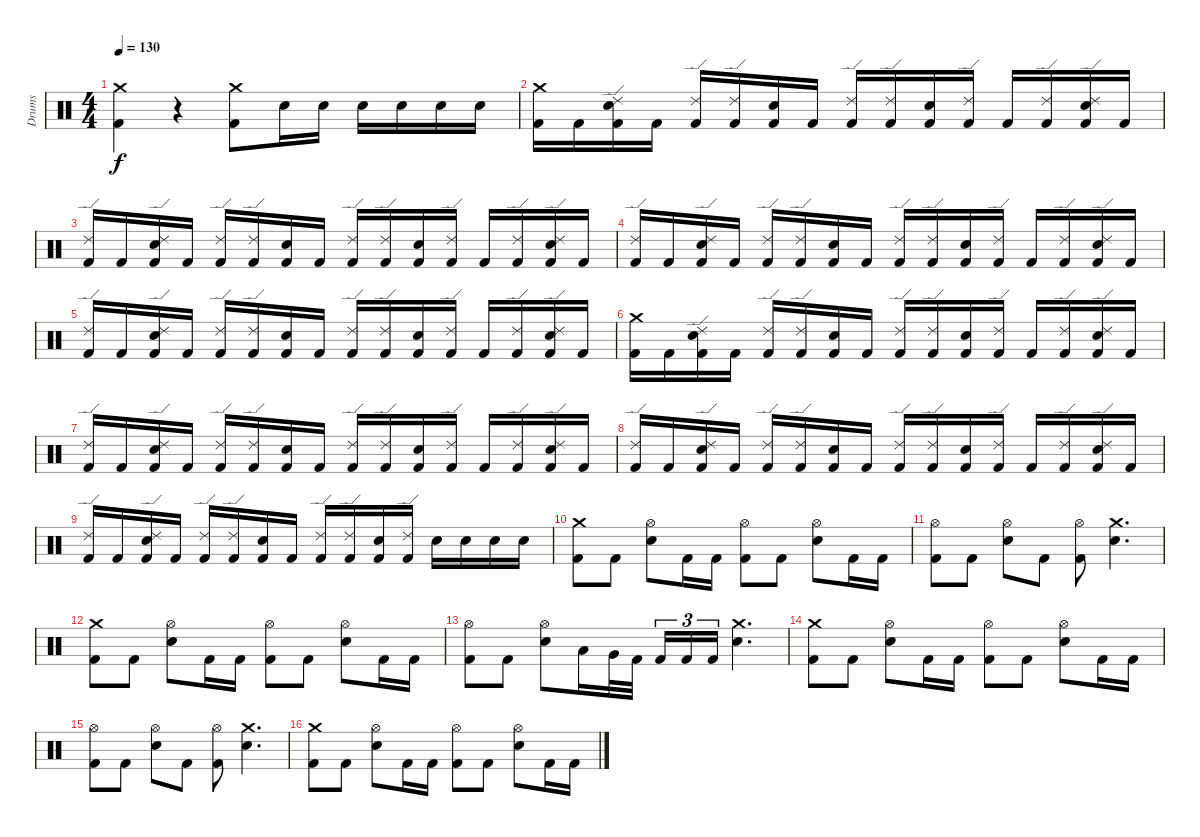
\track ("Drums" "Drums") {instrument percussion}
\staff {score}
\articulation defaults
\ts (4 4)
\tempo 130
\clef neutral
\ks c
("Crash medium (hit)" "Kick (hit) 2").4{dy f} r.4 ("Crash medium (hit)" "Kick (hit) 2").8 "Electric Snare (hit)".16 "Electric Snare (hit)".16 "Electric Snare (hit)".16 "Electric Snare (hit)".16 "Electric Snare (hit)".16 "Electric Snare (hit)".16 |
("Crash medium (hit)" "Kick (hit) 2").16 "Kick (hit) 2".16 ("Electric Snare (hit)" "Ride (edge) 2" "Kick (hit) 2").16 "Kick (hit) 2".16 ("Ride (edge) 2" "Kick (hit) 2").16 ("Ride (edge) 2" "Kick (hit) 2").16 ("Electric Snare (hit)" "Kick (hit) 2").16 "Kick (hit) 2".16 ("Ride (edge) 2" "Kick (hit) 2").16 ("Ride (edge) 2" "Kick (hit) 2").16 ("Electric Snare (hit)" "Kick (hit) 2").16 ("Ride (edge) 2" "Kick (hit) 2").16 "Kick (hit) 2".16 ("Ride (edge) 2" "Kick (hit) 2").16 ("Electric Snare (hit)" "Ride (edge) 2" "Kick (hit) 2").16 "Kick (hit) 2".16 |
("Ride (edge) 2" "Kick (hit) 2").16 "Kick (hit) 2".16 ("Electric Snare (hit)" "Ride (edge) 2" "Kick (hit) 2").16 "Kick (hit) 2".16 ("Ride (edge) 2" "Kick (hit) 2").16 ("Ride (edge) 2" "Kick (hit) 2").16 ("Electric Snare (hit)" "Kick (hit) 2").16 "Kick (hit) 2".16 ("Ride (edge) 2" "Kick (hit) 2").16 ("Ride (edge) 2" "Kick (hit) 2").16 ("Electric Snare (hit)" "Kick (hit) 2").16 ("Ride (edge) 2" "Kick (hit) 2").16 "Kick (hit) 2".16 ("Ride (edge) 2" "Kick (hit) 2").16 ("Electric Snare (hit)" "Ride (edge) 2" "Kick (hit) 2").16 "Kick (hit) 2".16 |
("Ride (edge) 2" "Kick (hit) 2").16 "Kick (hit) 2".16 ("Electric Snare (hit)" "Ride (edge) 2" "Kick (hit) 2").16 "Kick (hit) 2".16 ("Ride (edge) 2" "Kick (hit) 2").16 ("Ride (edge) 2" "Kick (hit) 2").16 ("Electric Snare (hit)" "Kick (hit) 2").16 "Kick (hit) 2".16 ("Ride (edge) 2" "Kick (hit) 2").16 ("Ride (edge) 2" "Kick (hit) 2").16 ("Electric Snare (hit)" "Kick (hit) 2").16 ("Ride (edge) 2" "Kick (hit) 2").16 "Kick (hit) 2".16 ("Ride (edge) 2" "Kick (hit) 2").16 ("Electric Snare (hit)" "Ride (edge) 2" "Kick (hit) 2").16 "Kick (hit) 2".16 |
("Ride (edge) 2" "Kick (hit) 2").16 "Kick (hit) 2".16 ("Electric Snare (hit)" "Ride (edge) 2" "Kick (hit) 2").16 "Kick (hit) 2".16 ("Ride (edge) 2" "Kick (hit) 2").16 ("Ride (edge) 2" "Kick (hit) 2").16 ("Electric Snare (hit)" "Kick (hit) 2").16 "Kick (hit) 2".16 ("Ride (edge) 2" "Kick (hit) 2").16 ("Ride (edge) 2" "Kick (hit) 2").16 ("Electric Snare (hit)" "Kick (hit) 2").16 ("Ride (edge) 2" "Kick (hit) 2").16 "Kick (hit) 2".16 ("Ride (edge) 2" "Kick (hit) 2").16 ("Electric Snare (hit)" "Ride (edge) 2" "Kick (hit) 2").16 "Kick (hit) 2".16 |
("Crash medium (hit)" "Kick (hit) 2").16 "Kick (hit) 2".16 ("Electric Snare (hit)" "Ride (edge) 2" "Kick (hit) 2").16 "Kick (hit) 2".16 ("Ride (edge) 2" "Kick (hit) 2").16 ("Ride (edge) 2" "Kick (hit) 2").16 ("Electric Snare (hit)" "Kick (hit) 2").16 "Kick (hit) 2".16 ("Ride (edge) 2" "Kick (hit) 2").16 ("Ride (edge) 2" "Kick (hit) 2").16 ("Electric Snare (hit)" "Kick (hit) 2").16 ("Ride (edge) 2" "Kick (hit) 2").16 "Kick (hit) 2".16 ("Ride (edge) 2" "Kick (hit) 2").16 ("Electric Snare (hit)" "Ride (edge) 2" "Kick (hit) 2").16 "Kick (hit) 2".16 |
("Ride (edge) 2" "Kick (hit) 2").16 "Kick (hit) 2".16 ("Electric Snare (hit)" "Ride (edge) 2" "Kick (hit) 2").16 "Kick (hit) 2".16 ("Ride (edge) 2" "Kick (hit) 2").16 ("Ride (edge) 2" "Kick (hit) 2").16 ("Electric Snare (hit)" "Kick (hit) 2").16 "Kick (hit) 2".16 ("Ride (edge) 2" "Kick (hit) 2").16 ("Ride (edge) 2" "Kick (hit) 2").16 ("Electric Snare (hit)" "Kick (hit) 2").16 ("Ride (edge) 2" "Kick (hit) 2").16 "Kick (hit) 2".16 ("Ride (edge) 2" "Kick (hit) 2").16 ("Electric Snare (hit)" "Ride (edge) 2" "Kick (hit) 2").16 "Kick (hit) 2".16 |
("Ride (edge) 2" "Kick (hit) 2").16 "Kick (hit) 2".16 ("Electric Snare (hit)" "Ride (edge) 2" "Kick (hit) 2").16 "Kick (hit) 2".16 ("Ride (edge) 2" "Kick (hit) 2").16 ("Ride (edge) 2" "Kick (hit) 2").16 ("Electric Snare (hit)" "Kick (hit) 2").16 "Kick (hit) 2".16 ("Ride (edge) 2" "Kick (hit) 2").16 ("Ride (edge) 2" "Kick (hit) 2").16 ("Electric Snare (hit)" "Kick (hit) 2").16 ("Ride (edge) 2" "Kick (hit) 2").16 "Kick (hit) 2".16 ("Ride (edge) 2" "Kick (hit) 2").16 ("Electric Snare (hit)" "Ride (edge) 2" "Kick (hit) 2").16 "Kick (hit) 2".16 |
("Ride (edge) 2" "Kick (hit) 2").16 "Kick (hit) 2".16 ("Electric Snare (hit)" "Ride (edge) 2" "Kick (hit) 2").16 "Kick (hit) 2".16 ("Ride (edge) 2" "Kick (hit) 2").16 ("Ride (edge) 2" "Kick (hit) 2").16 ("Electric Snare (hit)" "Kick (hit) 2").16 "Kick (hit) 2".16 ("Ride (edge) 2" "Kick (hit) 2").16 ("Ride (edge) 2" "Kick (hit) 2").16 ("Electric Snare (hit)" "Kick (hit) 2").16 ("Ride (edge) 2" "Kick (hit) 2").16 "Electric Snare (hit)".16 "Electric Snare (hit)".16 "Electric Snare (hit)".16 "Electric Snare (hit)".16 |
("Kick (hit) 2" "Crash medium (hit)").8 "Kick (hit) 2".8 ("Electric Snare (hit)" "Hi-Hat (open)").8 "Kick (hit) 2".16 "Kick (hit) 2".16 ("Kick (hit) 2" "Hi-Hat (open)").8 "Kick (hit) 2".8 ("Electric Snare (hit)" "Hi-Hat (open)").8 "Kick (hit) 2".16 "Kick (hit) 2".16 |
("Kick (hit) 2" "Hi-Hat (open)").8 "Kick (hit) 2".8 ("Electric Snare (hit)" "Hi-Hat (open)").8 "Kick (hit) 2".8 ("Hi-Hat (open)" "Kick (hit) 2").8 ("Crash medium (hit)" "Electric Snare (hit)").4{d} |
("Kick (hit) 2" "Crash medium (hit)").8 "Kick (hit) 2".8 ("Electric Snare (hit)" "Hi-Hat (open)").8 "Kick (hit) 2".16 "Kick (hit) 2".16 ("Kick (hit) 2" "Hi-Hat (open)").8 "Kick (hit) 2".8 ("Electric Snare (hit)" "Hi-Hat (open)").8 "Kick (hit) 2".16 "Kick (hit) 2".16 |
("Kick (hit) 2" "Hi-Hat (open)").8 "Kick (hit) 2".8 ("Electric Snare (hit)" "Hi-Hat (open)").8 "Low Tom (hit)".16 "Very Low Tom (hit)".32 "Kick (hit) 2".32 "Kick (hit) 2".16{tu (3 2)} "Kick (hit) 2".16{tu (3 2)} "Kick (hit) 2".16{tu (3 2)} ("Crash medium (hit)" "Electric Snare (hit)").4{d} |
("Kick (hit) 2" "Crash medium (hit)").8 "Kick (hit) 2".8 ("Electric Snare (hit)" "Hi-Hat (open)").8 "Kick (hit) 2".16 "Kick (hit) 2".16 ("Kick (hit) 2" "Hi-Hat (open)").8 "Kick (hit) 2".8 ("Electric Snare (hit)" "Hi-Hat (open)").8 "Kick (hit) 2".16 "Kick (hit) 2".16 |
("Kick (hit) 2" "Hi-Hat (open)").8 "Kick (hit) 2".8 ("Electric Snare (hit)" "Hi-Hat (open)").8 "Kick (hit) 2".8 ("Hi-Hat (open)" "Kick (hit) 2").8 ("Crash medium (hit)" "Electric Snare (hit)").4{d} |
("Kick (hit) 2" "Crash medium (hit)").8 "Kick (hit) 2".8 ("Electric Snare (hit)" "Hi-Hat (open)").8 "Kick (hit) 2".16 "Kick (hit) 2".16 ("Kick (hit) 2" "Hi-Hat (open)").8 "Kick (hit) 2".8 ("Electric Snare (hit)" "Hi-Hat (open)").8 "Kick (hit) 2".16 "Kick (hit) 2".16
